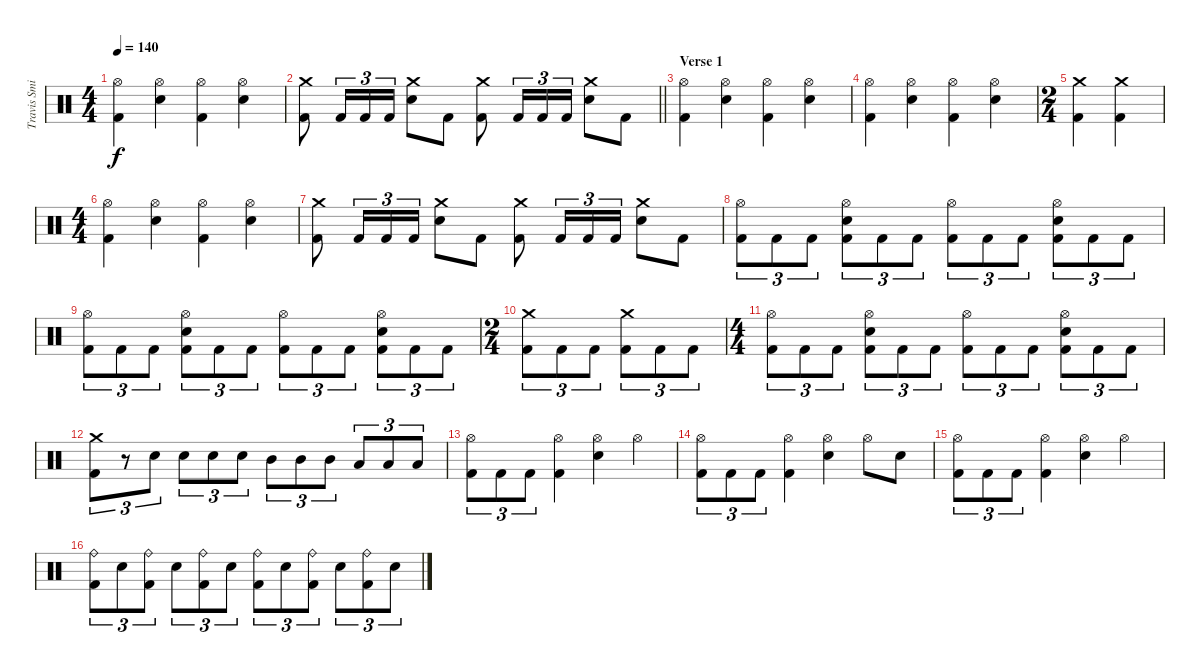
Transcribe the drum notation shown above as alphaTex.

\track ("Travis Smith" "Travis Smi") {instrument percussion}
\staff {score}
\articulation defaults
\ts (4 4)
\tempo 140
\clef neutral
\ks c
("Hi-Hat (open)" "Kick (hit) 2").4{dy f} ("Hi-Hat (open)" "Electric Snare (hit)").4 ("Hi-Hat (open)" "Kick (hit) 2").4 ("Hi-Hat (open)" "Electric Snare (hit)").4 |
\barLineRight lightlight
("Crash medium (hit)" "Kick (hit) 2").8 "Kick (hit) 2".16{tu (3 2)} "Kick (hit) 2".16{tu (3 2)} "Kick (hit) 2".16{tu (3 2)} ("Crash medium (hit)" "Electric Snare (hit)").8 "Kick (hit) 2".8 ("Crash medium (hit)" "Kick (hit) 2").8 "Kick (hit) 2".16{tu (3 2)} "Kick (hit) 2".16{tu (3 2)} "Kick (hit) 2".16{tu (3 2)} ("Crash medium (hit)" "Electric Snare (hit)").8 "Kick (hit) 2".8 |
\section ("" "Verse 1")
("Hi-Hat (open)" "Kick (hit) 2").4 ("Hi-Hat (open)" "Electric Snare (hit)").4 ("Hi-Hat (open)" "Kick (hit) 2").4 ("Hi-Hat (open)" "Electric Snare (hit)").4 |
("Hi-Hat (open)" "Kick (hit) 2").4 ("Hi-Hat (open)" "Electric Snare (hit)").4 ("Hi-Hat (open)" "Kick (hit) 2").4 ("Hi-Hat (open)" "Electric Snare (hit)").4 |
\ts (2 4)
("Crash medium (hit)" "Kick (hit) 2").4 ("Crash medium (hit)" "Kick (hit) 2").4 |
\ts (4 4)
("Hi-Hat (open)" "Kick (hit) 2").4 ("Hi-Hat (open)" "Electric Snare (hit)").4 ("Hi-Hat (open)" "Kick (hit) 2").4 ("Hi-Hat (open)" "Electric Snare (hit)").4 |
("Crash medium (hit)" "Kick (hit) 2").8 "Kick (hit) 2".16{tu (3 2)} "Kick (hit) 2".16{tu (3 2)} "Kick (hit) 2".16{tu (3 2)} ("Crash medium (hit)" "Electric Snare (hit)").8 "Kick (hit) 2".8 ("Crash medium (hit)" "Kick (hit) 2").8 "Kick (hit) 2".16{tu (3 2)} "Kick (hit) 2".16{tu (3 2)} "Kick (hit) 2".16{tu (3 2)} ("Crash medium (hit)" "Electric Snare (hit)").8 "Kick (hit) 2".8 |
("Hi-Hat (open)" "Kick (hit) 2").8{tu (3 2)} "Kick (hit) 2".8{tu (3 2)} "Kick (hit) 2".8{tu (3 2)} ("Hi-Hat (open)" "Electric Snare (hit)" "Kick (hit) 2").8{tu (3 2)} "Kick (hit) 2".8{tu (3 2)} "Kick (hit) 2".8{tu (3 2)} ("Hi-Hat (open)" "Kick (hit) 2").8{tu (3 2)} "Kick (hit) 2".8{tu (3 2)} "Kick (hit) 2".8{tu (3 2)} ("Hi-Hat (open)" "Electric Snare (hit)" "Kick (hit) 2").8{tu (3 2)} "Kick (hit) 2".8{tu (3 2)} "Kick (hit) 2".8{tu (3 2)} |
("Hi-Hat (open)" "Kick (hit) 2").8{tu (3 2)} "Kick (hit) 2".8{tu (3 2)} "Kick (hit) 2".8{tu (3 2)} ("Hi-Hat (open)" "Electric Snare (hit)" "Kick (hit) 2").8{tu (3 2)} "Kick (hit) 2".8{tu (3 2)} "Kick (hit) 2".8{tu (3 2)} ("Hi-Hat (open)" "Kick (hit) 2").8{tu (3 2)} "Kick (hit) 2".8{tu (3 2)} "Kick (hit) 2".8{tu (3 2)} ("Hi-Hat (open)" "Electric Snare (hit)" "Kick (hit) 2").8{tu (3 2)} "Kick (hit) 2".8{tu (3 2)} "Kick (hit) 2".8{tu (3 2)} |
\ts (2 4)
("Crash medium (hit)" "Kick (hit) 2").8{tu (3 2)} "Kick (hit) 2".8{tu (3 2)} "Kick (hit) 2".8{tu (3 2)} ("Crash medium (hit)" "Kick (hit) 2").8{tu (3 2)} "Kick (hit) 2".8{tu (3 2)} "Kick (hit) 2".8{tu (3 2)} |
\ts (4 4)
("Hi-Hat (open)" "Kick (hit) 2").8{tu (3 2)} "Kick (hit) 2".8{tu (3 2)} "Kick (hit) 2".8{tu (3 2)} ("Hi-Hat (open)" "Electric Snare (hit)" "Kick (hit) 2").8{tu (3 2)} "Kick (hit) 2".8{tu (3 2)} "Kick (hit) 2".8{tu (3 2)} ("Hi-Hat (open)" "Kick (hit) 2").8{tu (3 2)} "Kick (hit) 2".8{tu (3 2)} "Kick (hit) 2".8{tu (3 2)} ("Hi-Hat (open)" "Electric Snare (hit)" "Kick (hit) 2").8{tu (3 2)} "Kick (hit) 2".8{tu (3 2)} "Kick (hit) 2".8{tu (3 2)} |
("Crash medium (hit)" "Kick (hit) 2").8{tu (3 2)} r.8{tu (3 2)} "Electric Snare (hit)".8{tu (3 2)} "Electric Snare (hit)".8{tu (3 2)} "Electric Snare (hit)".8{tu (3 2)} "Electric Snare (hit)".8{tu (3 2)} "Mid Tom (hit)".8{tu (3 2)} "Mid Tom (hit)".8{tu (3 2)} "Mid Tom (hit)".8{tu (3 2)} "Low Tom (hit)".8{tu (3 2)} "Low Tom (hit)".8{tu (3 2)} "Low Tom (hit)".8{tu (3 2)} |
("Hi-Hat (open)" "Kick (hit) 2").8{tu (3 2)} "Kick (hit) 2".8{tu (3 2)} "Kick (hit) 2".8{tu (3 2)} ("Hi-Hat (open)" "Kick (hit) 2").4 ("Hi-Hat (open)" "Electric Snare (hit)").4 "Hi-Hat (open)".4 |
("Hi-Hat (open)" "Kick (hit) 2").8{tu (3 2)} "Kick (hit) 2".8{tu (3 2)} "Kick (hit) 2".8{tu (3 2)} ("Hi-Hat (open)" "Kick (hit) 2").4 ("Hi-Hat (open)" "Electric Snare (hit)").4 "Hi-Hat (open)".8 "Electric Snare (hit)".8 |
("Hi-Hat (open)" "Kick (hit) 2").8{tu (3 2)} "Kick (hit) 2".8{tu (3 2)} "Kick (hit) 2".8{tu (3 2)} ("Hi-Hat (open)" "Kick (hit) 2").4 ("Hi-Hat (open)" "Electric Snare (hit)").4 "Hi-Hat (open)".4 |
("Ride (bell)" "Kick (hit) 2").8{tu (3 2)} "Electric Snare (hit)".8{tu (3 2)} ("Ride (bell)" "Kick (hit) 2").8{tu (3 2)} "Electric Snare (hit)".8{tu (3 2)} ("Ride (bell)" "Kick (hit) 2").8{tu (3 2)} "Electric Snare (hit)".8{tu (3 2)} ("Ride (bell)" "Kick (hit) 2").8{tu (3 2)} "Electric Snare (hit)".8{tu (3 2)} ("Ride (bell)" "Kick (hit) 2").8{tu (3 2)} "Electric Snare (hit)".8{tu (3 2)} ("Ride (bell)" "Kick (hit) 2").8{tu (3 2)} "Electric Snare (hit)".8{tu (3 2)}
